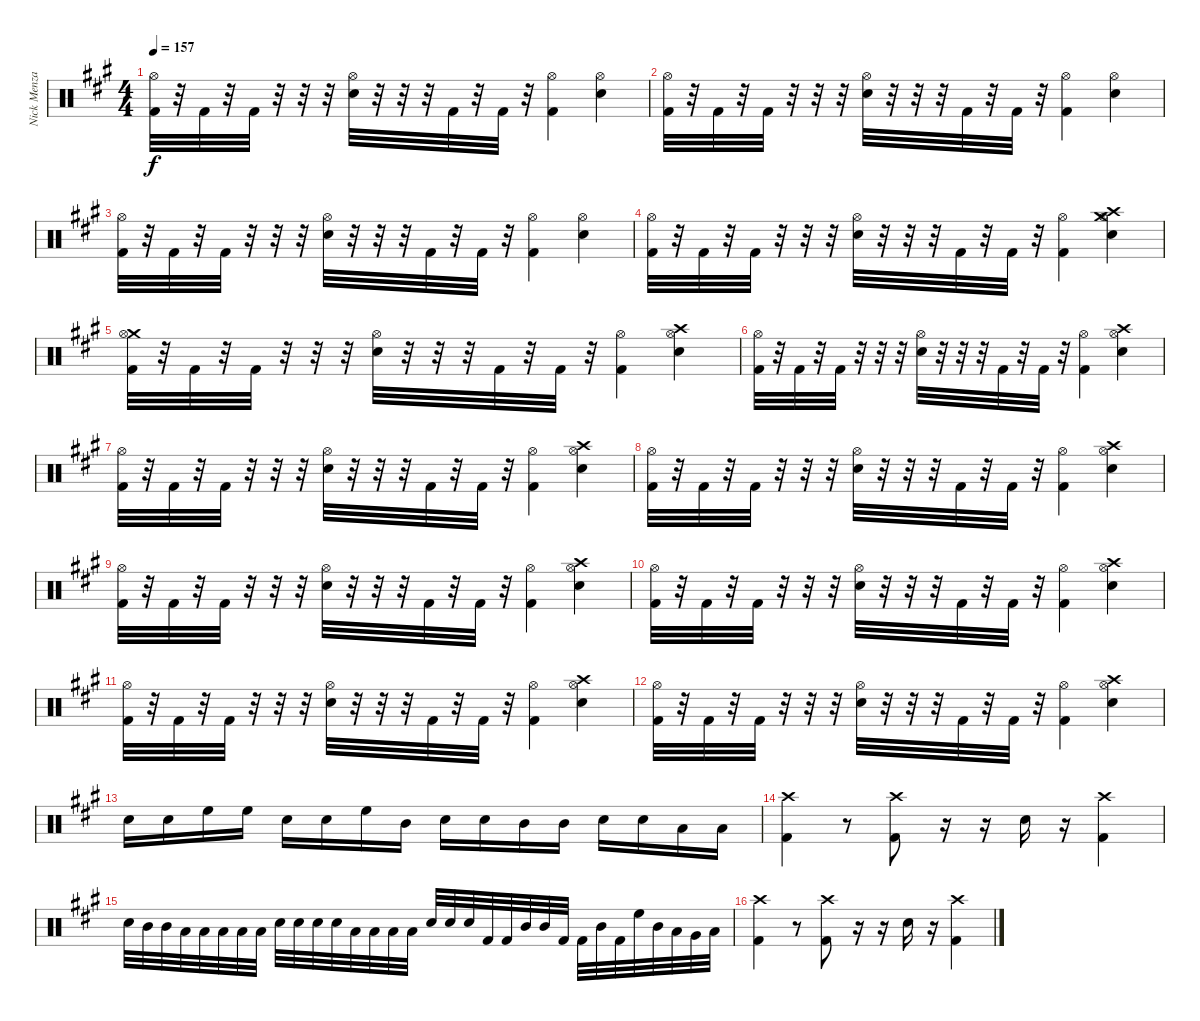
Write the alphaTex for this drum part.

\track ("Nick Menza" "Nick Menza") {instrument percussion}
\staff {score}
\articulation defaults
\ts (4 4)
\tempo 157
\clef neutral
\ks a
("Kick (hit) 2" "Hi-Hat (open)").32{dy f} r.32 "Kick (hit) 2".32 r.32 "Kick (hit) 2".32 r.32 r.32 r.32 ("Snare (hit) 2" "Hi-Hat (open)").32 r.32 r.32 r.32 "Kick (hit) 2".32 r.32 "Kick (hit) 2".32 r.32 ("Kick (hit) 2" "Hi-Hat (open)").4 ("Snare (hit) 2" "Hi-Hat (open)").4 |
("Kick (hit) 2" "Hi-Hat (open)").32 r.32 "Kick (hit) 2".32 r.32 "Kick (hit) 2".32 r.32 r.32 r.32 ("Snare (hit) 2" "Hi-Hat (open)").32 r.32 r.32 r.32 "Kick (hit) 2".32 r.32 "Kick (hit) 2".32 r.32 ("Kick (hit) 2" "Hi-Hat (open)").4 ("Snare (hit) 2" "Hi-Hat (open)").4 |
("Kick (hit) 2" "Hi-Hat (open)").32 r.32 "Kick (hit) 2".32 r.32 "Kick (hit) 2".32 r.32 r.32 r.32 ("Snare (hit) 2" "Hi-Hat (open)").32 r.32 r.32 r.32 "Kick (hit) 2".32 r.32 "Kick (hit) 2".32 r.32 ("Kick (hit) 2" "Hi-Hat (open)").4 ("Snare (hit) 2" "Hi-Hat (open)").4 |
("Kick (hit) 2" "Hi-Hat (open)").32 r.32 "Kick (hit) 2".32 r.32 "Kick (hit) 2".32 r.32 r.32 r.32 ("Snare (hit) 2" "Hi-Hat (open)").32 r.32 r.32 r.32 "Kick (hit) 2".32 r.32 "Kick (hit) 2".32 r.32 ("Kick (hit) 2" "Hi-Hat (open)").4 ("Snare (hit) 2" "Crash high (hit)" "Crash medium (hit)" "Hi-Hat (open)").4 |
("Kick (hit) 2" "Crash medium (hit)" "Hi-Hat (open)").32 r.32 "Kick (hit) 2".32 r.32 "Kick (hit) 2".32 r.32 r.32 r.32 ("Snare (hit) 2" "Hi-Hat (open)").32 r.32 r.32 r.32 "Kick (hit) 2".32 r.32 "Kick (hit) 2".32 r.32 ("Kick (hit) 2" "Hi-Hat (open)").4 ("Snare (hit) 2" "Crash high (hit)" "Hi-Hat (open)").4 |
("Kick (hit) 2" "Hi-Hat (open)").32 r.32 "Kick (hit) 2".32 r.32 "Kick (hit) 2".32 r.32 r.32 r.32 ("Snare (hit) 2" "Hi-Hat (open)").32 r.32 r.32 r.32 "Kick (hit) 2".32 r.32 "Kick (hit) 2".32 r.32 ("Kick (hit) 2" "Hi-Hat (open)").4 ("Snare (hit) 2" "Crash high (hit)" "Hi-Hat (open)").4 |
("Kick (hit) 2" "Hi-Hat (open)").32 r.32 "Kick (hit) 2".32 r.32 "Kick (hit) 2".32 r.32 r.32 r.32 ("Snare (hit) 2" "Hi-Hat (open)").32 r.32 r.32 r.32 "Kick (hit) 2".32 r.32 "Kick (hit) 2".32 r.32 ("Kick (hit) 2" "Hi-Hat (open)").4 ("Snare (hit) 2" "Crash high (hit)" "Hi-Hat (open)").4 |
("Kick (hit) 2" "Hi-Hat (open)").32 r.32 "Kick (hit) 2".32 r.32 "Kick (hit) 2".32 r.32 r.32 r.32 ("Snare (hit) 2" "Hi-Hat (open)").32 r.32 r.32 r.32 "Kick (hit) 2".32 r.32 "Kick (hit) 2".32 r.32 ("Kick (hit) 2" "Hi-Hat (open)").4 ("Snare (hit) 2" "Crash high (hit)" "Hi-Hat (open)").4 |
("Kick (hit) 2" "Hi-Hat (open)").32 r.32 "Kick (hit) 2".32 r.32 "Kick (hit) 2".32 r.32 r.32 r.32 ("Snare (hit) 2" "Hi-Hat (open)").32 r.32 r.32 r.32 "Kick (hit) 2".32 r.32 "Kick (hit) 2".32 r.32 ("Kick (hit) 2" "Hi-Hat (open)").4 ("Snare (hit) 2" "Crash high (hit)" "Hi-Hat (open)").4 |
("Kick (hit) 2" "Hi-Hat (open)").32 r.32 "Kick (hit) 2".32 r.32 "Kick (hit) 2".32 r.32 r.32 r.32 ("Snare (hit) 2" "Hi-Hat (open)").32 r.32 r.32 r.32 "Kick (hit) 2".32 r.32 "Kick (hit) 2".32 r.32 ("Kick (hit) 2" "Hi-Hat (open)").4 ("Snare (hit) 2" "Crash high (hit)" "Hi-Hat (open)").4 |
("Kick (hit) 2" "Hi-Hat (open)").32 r.32 "Kick (hit) 2".32 r.32 "Kick (hit) 2".32 r.32 r.32 r.32 ("Snare (hit) 2" "Hi-Hat (open)").32 r.32 r.32 r.32 "Kick (hit) 2".32 r.32 "Kick (hit) 2".32 r.32 ("Kick (hit) 2" "Hi-Hat (open)").4 ("Snare (hit) 2" "Crash high (hit)" "Hi-Hat (open)").4 |
("Kick (hit) 2" "Hi-Hat (open)").32 r.32 "Kick (hit) 2".32 r.32 "Kick (hit) 2".32 r.32 r.32 r.32 ("Snare (hit) 2" "Hi-Hat (open)").32 r.32 r.32 r.32 "Kick (hit) 2".32 r.32 "Kick (hit) 2".32 r.32 ("Kick (hit) 2" "Hi-Hat (open)").4 ("Snare (hit) 2" "Crash high (hit)" "Hi-Hat (open)").4 |
"Snare (hit) 2".16 "Snare (hit) 2".16 "High Floor Tom (hit)".16 "High Floor Tom (hit)".16 "Snare (hit) 2".16 "Snare (hit) 2".16 "High Floor Tom (hit)".16 "Mid Tom (hit)".16 "Snare (hit) 2".16 "Snare (hit) 2".16 "Mid Tom (hit)".16 "Mid Tom (hit)".16 "Snare (hit) 2".16 "Snare (hit) 2".16 "Low Tom (hit)".16 "Low Tom (hit)".16 |
("Crash high (hit)" "Kick (hit) 2").4 r.8 ("Crash high (hit)" "Kick (hit) 2").8 r.16 r.16 "Snare (hit) 2".16 r.16 ("Kick (hit) 2" "Crash high (hit)").4 |
"Snare (hit) 2".32 "Mid Tom (hit)".32 "Mid Tom (hit)".32 "Low Tom (hit)".32 "Low Tom (hit)".32 "Low Tom (hit)".32 "Low Tom (hit)".32 "Low Floor Tom (hit)".32 "Snare (hit) 2".32 "Snare (hit) 2".32 "Snare (hit) 2".32 "Snare (hit) 2".32 "Low Tom (hit)".32 "Low Floor Tom (hit)".32 "Low Floor Tom (hit)".32 "Low Floor Tom (hit)".32 "Snare (hit) 2".32 "Snare (hit) 2".32 "Snare (hit) 2".32 "Kick (hit) 2".32 "Kick (hit) 2".32 "Mid Tom (hit)".32 "Mid Tom (hit)".32 "Kick (hit) 2".32 "Kick (hit) 2".32 "Mid Tom (hit)".32 "Kick (hit) 2".32 "High Floor Tom (hit)".32 "Mid Tom (hit)".32 "Low Floor Tom (hit)".32 "Very Low Tom (hit)".32 "Low Floor Tom (hit)".32 |
("Crash high (hit)" "Kick (hit) 2").4 r.8 ("Crash high (hit)" "Kick (hit) 2").8 r.16 r.16 "Snare (hit) 2".16 r.16 ("Kick (hit) 2" "Crash high (hit)").4
